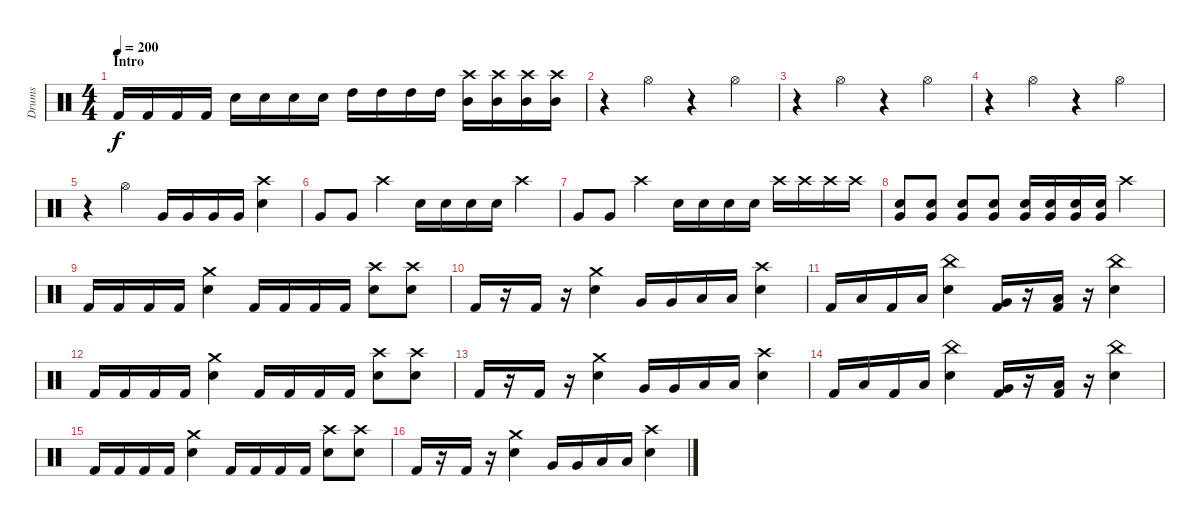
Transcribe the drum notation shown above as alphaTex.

\track ("Drums" "Drums") {instrument percussion}
\staff {score}
\articulation defaults
\ts (4 4)
\section ("" "Intro")
\tempo 200
\clef neutral
\ks c "Kick (hit) 2".16{dy f} "Kick (hit) 2".16 "Kick (hit) 2".16 "Kick (hit) 2".16 "Electric Snare (hit)".16 "Electric Snare (hit)".16 "Electric Snare (hit)".16 "Electric Snare (hit)".16 "High Tom (hit)".16 "High Tom (hit)".16 "High Tom (hit)".16 "High Tom (hit)".16
("Crash high (hit)" "Mid Tom (hit)").16 ("Crash high (hit)" "Mid Tom (hit)").16 ("Crash high (hit)" "Mid Tom (hit)").16 ("Crash high (hit)" "Mid Tom (hit)").16 |
r.4 "Hi-Hat (open)".4 r.4 "Hi-Hat (open)".4 |
r.4 "Hi-Hat (open)".4 r.4 "Hi-Hat (open)".4 |
r.4 "Hi-Hat (open)".4 r.4 "Hi-Hat (open)".4 |
r.4 "Hi-Hat (open)".4 "Very Low Tom (hit)".16 "Very Low Tom (hit)".16 "Very Low Tom (hit)".16 "Very Low Tom (hit)".16 ("Electric Snare (hit)" "Crash high (hit)").4 |
"Very Low Tom (hit)".8 "Very Low Tom (hit)".8 "Crash high (hit)".4 "Electric Snare (hit)".16 "Electric Snare (hit)".16 "Electric Snare (hit)".16 "Electric Snare (hit)".16 "Crash high (hit)".4 |
"Very Low Tom (hit)".8 "Very Low Tom (hit)".8 "Crash high (hit)".4 "Electric Snare (hit)".16 "Electric Snare (hit)".16 "Electric Snare (hit)".16 "Electric Snare (hit)".16 "Crash high (hit)".16 "Crash high (hit)".16 "Crash high (hit)".16 "Crash high (hit)".16 |
("Very Low Tom (hit)" "Electric Snare (hit)").8 ("Very Low Tom (hit)" "Electric Snare (hit)").8 ("Very Low Tom (hit)" "Electric Snare (hit)").8 ("Very Low Tom (hit)" "Electric Snare (hit)").8 ("Very Low Tom (hit)" "Electric Snare (hit)").16 ("Very Low Tom (hit)" "Electric Snare (hit)").16 ("Very Low Tom (hit)" "Electric Snare (hit)").16 ("Very Low Tom (hit)" "Electric Snare (hit)").16 "Crash high (hit)".4 |
"Kick (hit) 2".16 "Kick (hit) 2".16 "Kick (hit) 2".16 "Kick (hit) 2".16 ("Crash medium (hit)" "Electric Snare (hit)").4 "Kick (hit) 2".16 "Kick (hit) 2".16 "Kick (hit) 2".16 "Kick (hit) 2".16 ("Crash high (hit)" "Electric Snare (hit)").8 ("Crash high (hit)" "Electric Snare (hit)").8 |
"Kick (hit) 2".16 r.16 "Kick (hit) 2".16 r.16 ("Crash medium (hit)" "Electric Snare (hit)").4 "Very Low Tom (hit)".16 "Very Low Tom (hit)".16 "Low Floor Tom (hit)".16 "Low Floor Tom (hit)".16 ("Crash high (hit)" "Electric Snare (hit)").4 |
"Kick (hit) 2".16 "Low Floor Tom (hit)".16 "Kick (hit) 2".16 "Low Floor Tom (hit)".16 ("China (hit)" "Electric Snare (hit)").4 ("Very Low Tom (hit)" "Kick (hit) 2").16 r.16 ("Low Floor Tom (hit)" "Kick (hit) 2").16 r.16 ("China (hit)" "Electric Snare (hit)").4 |
"Kick (hit) 2".16 "Kick (hit) 2".16 "Kick (hit) 2".16 "Kick (hit) 2".16 ("Crash medium (hit)" "Electric Snare (hit)").4 "Kick (hit) 2".16 "Kick (hit) 2".16 "Kick (hit) 2".16 "Kick (hit) 2".16 ("Crash high (hit)" "Electric Snare (hit)").8 ("Crash high (hit)" "Electric Snare (hit)").8 |
"Kick (hit) 2".16 r.16 "Kick (hit) 2".16 r.16 ("Crash medium (hit)" "Electric Snare (hit)").4 "Very Low Tom (hit)".16 "Very Low Tom (hit)".16 "Low Floor Tom (hit)".16 "Low Floor Tom (hit)".16 ("Crash high (hit)" "Electric Snare (hit)").4 |
"Kick (hit) 2".16 "Low Floor Tom (hit)".16 "Kick (hit) 2".16 "Low Floor Tom (hit)".16 ("China (hit)" "Electric Snare (hit)").4 ("Very Low Tom (hit)" "Kick (hit) 2").16 r.16 ("Low Floor Tom (hit)" "Kick (hit) 2").16 r.16 ("China (hit)" "Electric Snare (hit)").4 |
"Kick (hit) 2".16 "Kick (hit) 2".16 "Kick (hit) 2".16 "Kick (hit) 2".16 ("Crash medium (hit)" "Electric Snare (hit)").4 "Kick (hit) 2".16 "Kick (hit) 2".16 "Kick (hit) 2".16 "Kick (hit) 2".16 ("Crash high (hit)" "Electric Snare (hit)").8 ("Crash high (hit)" "Electric Snare (hit)").8 |
"Kick (hit) 2".16 r.16 "Kick (hit) 2".16 r.16 ("Crash medium (hit)" "Electric Snare (hit)").4 "Very Low Tom (hit)".16 "Very Low Tom (hit)".16 "Low Floor Tom (hit)".16 "Low Floor Tom (hit)".16 ("Crash high (hit)" "Electric Snare (hit)").4
